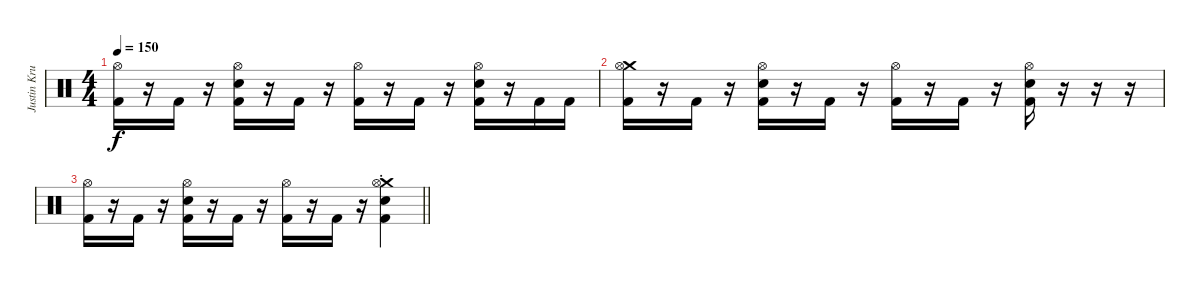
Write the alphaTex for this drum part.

\track ("Justin Kruger" "Justin Kru") {instrument percussion}
\staff {score}
\articulation defaults
\ts (4 4)
\tempo 150
\clef neutral
\ks c
("Hi-Hat (open)" "Kick (hit) 2").16{dy f} r.16 "Kick (hit) 2".16 r.16 ("Hi-Hat (open)" "Snare (hit) 2" "Kick (hit) 2").16 r.16 "Kick (hit) 2".16 r.16 ("Hi-Hat (open)" "Kick (hit) 2").16 r.16 "Kick (hit) 2".16 r.16 ("Hi-Hat (open)" "Snare (hit) 2" "Kick (hit) 2").16 r.16 "Kick (hit) 2".16 "Kick (hit) 2".16 |
("Crash medium (hit)" "Hi-Hat (open)" "Kick (hit) 2").16 r.16 "Kick (hit) 2".16 r.16 ("Hi-Hat (open)" "Snare (hit) 2" "Kick (hit) 2").16 r.16 "Kick (hit) 2".16 r.16 ("Hi-Hat (open)" "Kick (hit) 2").16 r.16 "Kick (hit) 2".16 r.16 ("Hi-Hat (open)" "Snare (hit) 2" "Kick (hit) 2").16 r.16 r.16 r.16 |
\barLineRight lightlight
("Hi-Hat (open)" "Kick (hit) 2").16 r.16 "Kick (hit) 2".16 r.16 ("Hi-Hat (open)" "Snare (hit) 2" "Kick (hit) 2").16 r.16 "Kick (hit) 2".16 r.16 ("Hi-Hat (open)" "Kick (hit) 2").16 r.16 "Kick (hit) 2".16 r.16 ("Crash medium (hit)"{st} "Hi-Hat (open)"{st} "Snare (hit) 2"{st} "Kick (hit) 2"{st}).4
